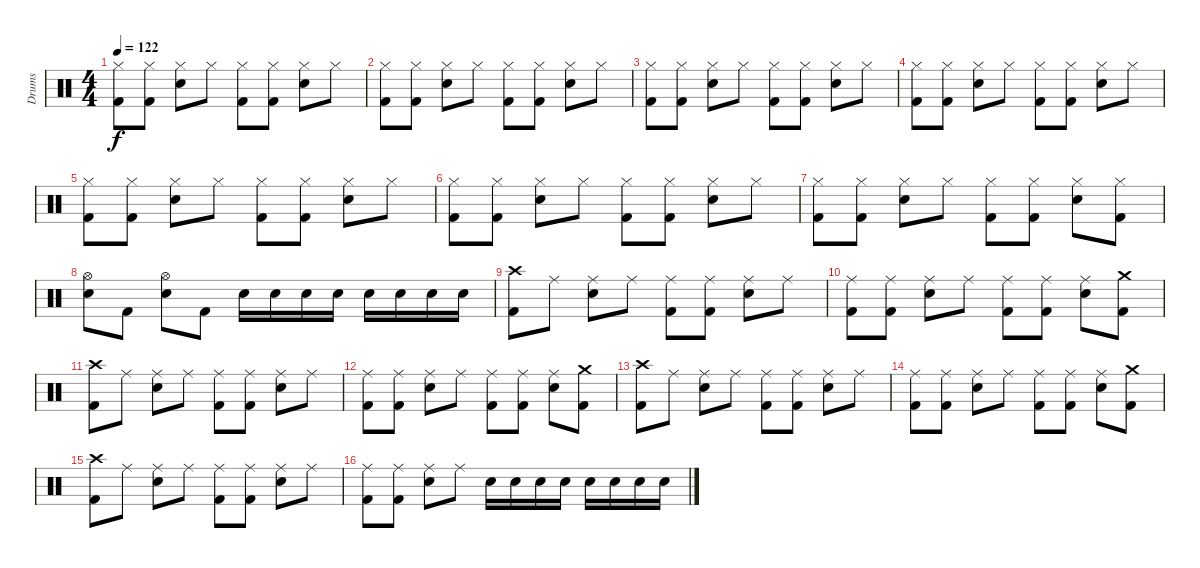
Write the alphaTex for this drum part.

\track ("Drums" "Drums") {instrument percussion}
\staff {score}
\articulation defaults
\ts (4 4)
\tempo 122
\clef neutral
\ks c
("Hi-Hat (closed)" "Kick (hit) 2").8{dy f} ("Hi-Hat (closed)" "Kick (hit) 2").8 ("Hi-Hat (closed)" "Snare (hit) 2").8 "Hi-Hat (closed)".8 ("Hi-Hat (closed)" "Kick (hit) 2").8 ("Hi-Hat (closed)" "Kick (hit) 2").8 ("Hi-Hat (closed)" "Snare (hit) 2").8 "Hi-Hat (closed)".8 |
("Hi-Hat (closed)" "Kick (hit) 2").8 ("Hi-Hat (closed)" "Kick (hit) 2").8 ("Hi-Hat (closed)" "Snare (hit) 2").8 "Hi-Hat (closed)".8 ("Hi-Hat (closed)" "Kick (hit) 2").8 ("Hi-Hat (closed)" "Kick (hit) 2").8 ("Hi-Hat (closed)" "Snare (hit) 2").8 "Hi-Hat (closed)".8 |
("Hi-Hat (closed)" "Kick (hit) 2").8 ("Hi-Hat (closed)" "Kick (hit) 2").8 ("Hi-Hat (closed)" "Snare (hit) 2").8 "Hi-Hat (closed)".8 ("Hi-Hat (closed)" "Kick (hit) 2").8 ("Hi-Hat (closed)" "Kick (hit) 2").8 ("Hi-Hat (closed)" "Snare (hit) 2").8 "Hi-Hat (closed)".8 |
("Hi-Hat (closed)" "Kick (hit) 2").8 ("Hi-Hat (closed)" "Kick (hit) 2").8 ("Hi-Hat (closed)" "Snare (hit) 2").8 "Hi-Hat (closed)".8 ("Hi-Hat (closed)" "Kick (hit) 2").8 ("Hi-Hat (closed)" "Kick (hit) 2").8 ("Hi-Hat (closed)" "Snare (hit) 2").8 "Hi-Hat (closed)".8 |
("Hi-Hat (closed)" "Kick (hit) 2").8 ("Hi-Hat (closed)" "Kick (hit) 2").8 ("Hi-Hat (closed)" "Snare (hit) 2").8 "Hi-Hat (closed)".8 ("Hi-Hat (closed)" "Kick (hit) 2").8 ("Hi-Hat (closed)" "Kick (hit) 2").8 ("Hi-Hat (closed)" "Snare (hit) 2").8 "Hi-Hat (closed)".8 |
("Hi-Hat (closed)" "Kick (hit) 2").8 ("Hi-Hat (closed)" "Kick (hit) 2").8 ("Hi-Hat (closed)" "Snare (hit) 2").8 "Hi-Hat (closed)".8 ("Hi-Hat (closed)" "Kick (hit) 2").8 ("Hi-Hat (closed)" "Kick (hit) 2").8 ("Hi-Hat (closed)" "Snare (hit) 2").8 "Hi-Hat (closed)".8 |
("Hi-Hat (closed)" "Kick (hit) 2").8 ("Hi-Hat (closed)" "Kick (hit) 2").8 ("Hi-Hat (closed)" "Snare (hit) 2").8 "Hi-Hat (closed)".8 ("Hi-Hat (closed)" "Kick (hit) 2").8 ("Hi-Hat (closed)" "Kick (hit) 2").8 ("Hi-Hat (closed)" "Snare (hit) 2").8 ("Hi-Hat (closed)" "Kick (hit) 2").8 |
("Hi-Hat (open)" "Snare (hit) 2").8 "Kick (hit) 2".8 ("Hi-Hat (open)" "Snare (hit) 2").8 "Kick (hit) 2".8 "Snare (hit) 2".16 "Snare (hit) 2".16 "Snare (hit) 2".16 "Snare (hit) 2".16 "Snare (hit) 2".16 "Snare (hit) 2".16 "Snare (hit) 2".16 "Snare (hit) 2".16 |
("Crash high (hit)" "Kick (hit) 2").8 "Ride (middle)".8 ("Ride (middle)" "Snare (hit) 2").8 "Ride (middle)".8 ("Ride (middle)" "Kick (hit) 2").8 ("Ride (middle)" "Kick (hit) 2").8 ("Ride (middle)" "Snare (hit) 2").8 "Ride (middle)".8 |
("Ride (middle)" "Kick (hit) 2").8 ("Ride (middle)" "Kick (hit) 2").8 ("Ride (middle)" "Snare (hit) 2").8 "Ride (middle)".8 ("Ride (middle)" "Kick (hit) 2").8 ("Ride (middle)" "Kick (hit) 2").8 ("Ride (middle)" "Snare (hit) 2").8 ("Crash medium (hit)" "Kick (hit) 2").8 |
("Crash high (hit)" "Kick (hit) 2").8 "Ride (middle)".8 ("Ride (middle)" "Snare (hit) 2").8 "Ride (middle)".8 ("Ride (middle)" "Kick (hit) 2").8 ("Ride (middle)" "Kick (hit) 2").8 ("Ride (middle)" "Snare (hit) 2").8 "Ride (middle)".8 |
("Ride (middle)" "Kick (hit) 2").8 ("Ride (middle)" "Kick (hit) 2").8 ("Ride (middle)" "Snare (hit) 2").8 "Ride (middle)".8 ("Ride (middle)" "Kick (hit) 2").8 ("Ride (middle)" "Kick (hit) 2").8 ("Ride (middle)" "Snare (hit) 2").8 ("Crash medium (hit)" "Kick (hit) 2").8 |
("Crash high (hit)" "Kick (hit) 2").8 "Ride (middle)".8 ("Ride (middle)" "Snare (hit) 2").8 "Ride (middle)".8 ("Ride (middle)" "Kick (hit) 2").8 ("Ride (middle)" "Kick (hit) 2").8 ("Ride (middle)" "Snare (hit) 2").8 "Ride (middle)".8 |
("Ride (middle)" "Kick (hit) 2").8 ("Ride (middle)" "Kick (hit) 2").8 ("Ride (middle)" "Snare (hit) 2").8 "Ride (middle)".8 ("Ride (middle)" "Kick (hit) 2").8 ("Ride (middle)" "Kick (hit) 2").8 ("Ride (middle)" "Snare (hit) 2").8 ("Crash medium (hit)" "Kick (hit) 2").8 |
("Crash high (hit)" "Kick (hit) 2").8 "Ride (middle)".8 ("Ride (middle)" "Snare (hit) 2").8 "Ride (middle)".8 ("Ride (middle)" "Kick (hit) 2").8 ("Ride (middle)" "Kick (hit) 2").8 ("Ride (middle)" "Snare (hit) 2").8 "Ride (middle)".8 |
("Ride (middle)" "Kick (hit) 2").8 ("Ride (middle)" "Kick (hit) 2").8 ("Ride (middle)" "Snare (hit) 2").8 "Ride (middle)".8 "Snare (hit) 2".16 "Snare (hit) 2".16 "Snare (hit) 2".16 "Snare (hit) 2".16 "Snare (hit) 2".16 "Snare (hit) 2".16 "Snare (hit) 2".16 "Snare (hit) 2".16
